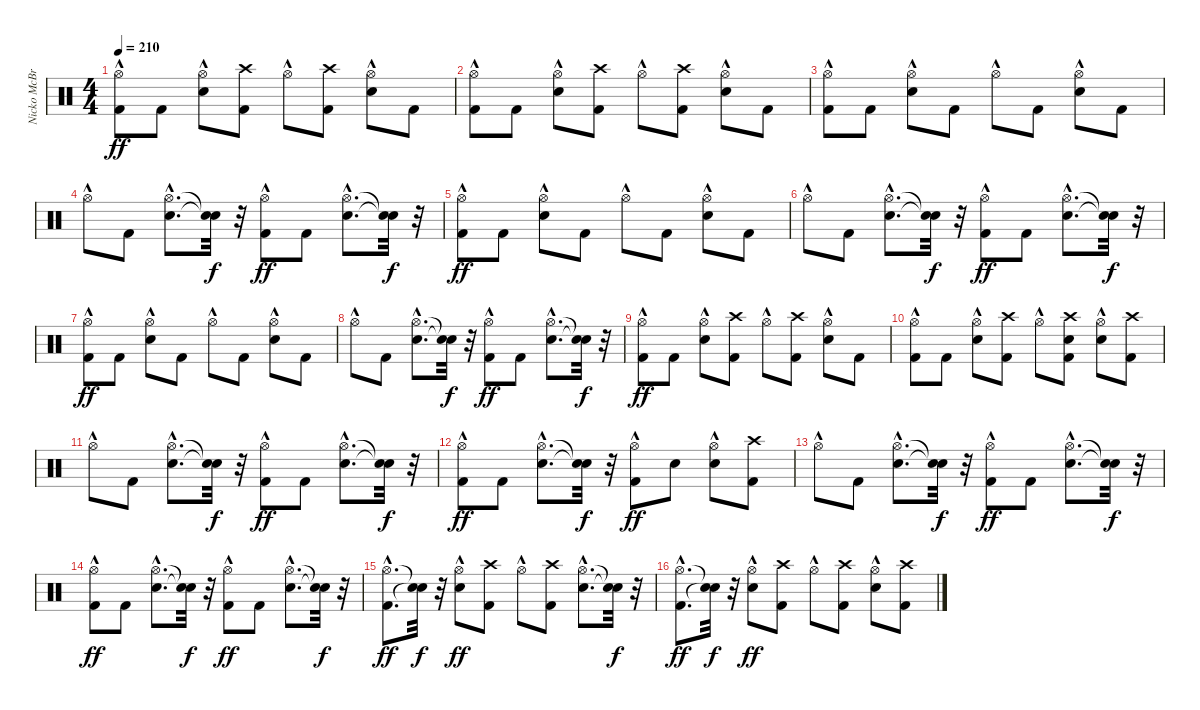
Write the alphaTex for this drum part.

\track ("Nicko McBrain" "Nicko McBr") {instrument percussion}
\staff {score}
\articulation defaults
\ts (4 4)
\tempo 210
\clef neutral
\ks c
("Kick (hit) 2" "Hi-Hat (open)"{hac}).8{dy ff} "Kick (hit) 2".8 ("Snare (hit) 2" "Hi-Hat (open)"{hac}).8 ("Kick (hit) 2" "Crash high (hit)").8 "Hi-Hat (open)"{hac}.8 ("Kick (hit) 2" "Crash high (hit)").8 ("Snare (hit) 2" "Hi-Hat (open)"{hac}).8 "Kick (hit) 2".8 |
("Kick (hit) 2" "Hi-Hat (open)"{hac}).8 "Kick (hit) 2".8 ("Snare (hit) 2" "Hi-Hat (open)"{hac}).8 ("Kick (hit) 2" "Crash high (hit)").8 "Hi-Hat (open)"{hac}.8 ("Kick (hit) 2" "Crash high (hit)").8 ("Snare (hit) 2" "Hi-Hat (open)"{hac}).8 "Kick (hit) 2".8 |
("Kick (hit) 2" "Hi-Hat (open)"{hac}).8 "Kick (hit) 2".8 ("Snare (hit) 2" "Hi-Hat (open)"{hac}).8 "Kick (hit) 2".8 "Hi-Hat (open)"{hac}.8 "Kick (hit) 2".8 ("Snare (hit) 2" "Hi-Hat (open)"{hac}).8 "Kick (hit) 2".8 |
"Hi-Hat (open)"{hac}.8 "Kick (hit) 2".8 ("Snare (hit) 2"{hac} "Hi-Hat (open)"{hac}).8{d} ("Snare (hit)"{t} "Snare (hit)"{t}).32{dy f} r.32 ("Kick (hit) 2" "Hi-Hat (open)"{hac}).8{dy ff} "Kick (hit) 2".8 ("Snare (hit) 2"{hac} "Hi-Hat (open)"{hac}).8{d} ("Snare (hit)"{t} "Snare (hit)"{t}).32{dy f} r.32 |
("Kick (hit) 2" "Hi-Hat (open)"{hac}).8{dy ff} "Kick (hit) 2".8 ("Snare (hit) 2" "Hi-Hat (open)"{hac}).8 "Kick (hit) 2".8 "Hi-Hat (open)"{hac}.8 "Kick (hit) 2".8 ("Snare (hit) 2" "Hi-Hat (open)"{hac}).8 "Kick (hit) 2".8 |
"Hi-Hat (open)"{hac}.8 "Kick (hit) 2".8 ("Snare (hit) 2"{hac} "Hi-Hat (open)"{hac}).8{d} ("Snare (hit)"{t} "Snare (hit)"{t}).32{dy f} r.32 ("Kick (hit) 2" "Hi-Hat (open)"{hac}).8{dy ff} "Kick (hit) 2".8 ("Snare (hit) 2"{hac} "Hi-Hat (open)"{hac}).8{d} ("Snare (hit)"{t} "Snare (hit)"{t}).32{dy f} r.32 |
("Kick (hit) 2" "Hi-Hat (open)"{hac}).8{dy ff} "Kick (hit) 2".8 ("Snare (hit) 2" "Hi-Hat (open)"{hac}).8 "Kick (hit) 2".8 "Hi-Hat (open)"{hac}.8 "Kick (hit) 2".8 ("Snare (hit) 2" "Hi-Hat (open)"{hac}).8 "Kick (hit) 2".8 |
"Hi-Hat (open)"{hac}.8 "Kick (hit) 2".8 ("Snare (hit) 2"{hac} "Hi-Hat (open)"{hac}).8{d} ("Snare (hit)"{t} "Snare (hit)"{t}).32{dy f} r.32 ("Kick (hit) 2" "Hi-Hat (open)"{hac}).8{dy ff} "Kick (hit) 2".8 ("Snare (hit) 2"{hac} "Hi-Hat (open)"{hac}).8{d} ("Snare (hit)"{t} "Snare (hit)"{t}).32{dy f} r.32 |
("Kick (hit) 2" "Hi-Hat (open)"{hac}).8{dy ff} "Kick (hit) 2".8 ("Snare (hit) 2" "Hi-Hat (open)"{hac}).8 ("Kick (hit) 2" "Crash high (hit)").8 "Hi-Hat (open)"{hac}.8 ("Kick (hit) 2" "Crash high (hit)").8 ("Snare (hit) 2" "Hi-Hat (open)"{hac}).8 "Kick (hit) 2".8 |
("Kick (hit) 2" "Hi-Hat (open)"{hac}).8 "Kick (hit) 2".8 ("Snare (hit) 2" "Hi-Hat (open)"{hac}).8 ("Kick (hit) 2" "Crash high (hit)").8 "Hi-Hat (open)"{hac}.8 ("Kick (hit) 2" "Snare (hit) 2" "Crash high (hit)").8 ("Snare (hit) 2" "Hi-Hat (open)"{hac}).8 ("Kick (hit) 2" "Crash high (hit)").8 |
"Hi-Hat (open)"{hac}.8 "Kick (hit) 2".8 ("Snare (hit) 2"{hac} "Hi-Hat (open)"{hac}).8{d} ("Snare (hit)"{t} "Snare (hit)"{t}).32{dy f} r.32 ("Kick (hit) 2" "Hi-Hat (open)"{hac}).8{dy ff} "Kick (hit) 2".8 ("Snare (hit) 2"{hac} "Hi-Hat (open)"{hac}).8{d} ("Snare (hit)"{t} "Snare (hit)"{t}).32{dy f} r.32 |
("Kick (hit) 2" "Hi-Hat (open)"{hac}).8{dy ff} "Kick (hit) 2".8 ("Snare (hit) 2"{hac} "Hi-Hat (open)"{hac}).8{d} ("Snare (hit)"{t} "Snare (hit)"{t}).32{dy f} r.32 ("Kick (hit) 2" "Hi-Hat (open)"{hac}).8{dy ff} "Snare (hit) 2".8 ("Snare (hit) 2" "Hi-Hat (open)"{hac}).8 ("Kick (hit) 2" "Crash high (hit)").8 |
"Hi-Hat (open)"{hac}.8 "Kick (hit) 2".8 ("Snare (hit) 2"{hac} "Hi-Hat (open)"{hac}).8{d} ("Snare (hit)"{t} "Snare (hit)"{t}).32{dy f} r.32 ("Kick (hit) 2" "Hi-Hat (open)"{hac}).8{dy ff} "Kick (hit) 2".8 ("Snare (hit) 2"{hac} "Hi-Hat (open)"{hac}).8{d} ("Snare (hit)"{t} "Snare (hit)"{t}).32{dy f} r.32 |
("Kick (hit) 2" "Hi-Hat (open)"{hac}).8{dy ff} "Kick (hit) 2".8 ("Snare (hit) 2"{hac} "Hi-Hat (open)"{hac}).8{d} ("Snare (hit)"{t} "Snare (hit)"{t}).32{dy f} r.32 ("Kick (hit) 2" "Hi-Hat (open)"{hac}).8{dy ff} "Kick (hit) 2".8 ("Snare (hit) 2"{hac} "Hi-Hat (open)"{hac}).8{d} ("Snare (hit)"{t} "Snare (hit)"{t}).32{dy f} r.32 |
("Kick (hit) 2"{hac} "Hi-Hat (open)"{hac}).8{d dy ff} ("Snare (hit)"{t} "Snare (hit)"{t}).32{dy f} r.32 ("Snare (hit) 2" "Hi-Hat (open)"{hac}).8{dy ff} ("Kick (hit) 2" "Crash high (hit)").8 "Hi-Hat (open)"{hac}.8 ("Kick (hit) 2" "Crash high (hit)").8 ("Snare (hit) 2"{hac} "Hi-Hat (open)"{hac}).8{d} ("Snare (hit)"{t} "Snare (hit)"{t}).32{dy f} r.32 |
("Kick (hit) 2"{hac} "Hi-Hat (open)"{hac}).8{d dy ff} ("Snare (hit)"{t} "Snare (hit)"{t}).32{dy f} r.32 ("Snare (hit) 2" "Hi-Hat (open)"{hac}).8{dy ff} ("Kick (hit) 2" "Crash high (hit)").8 "Hi-Hat (open)"{hac}.8 ("Kick (hit) 2" "Crash high (hit)").8 ("Snare (hit) 2" "Hi-Hat (open)"{hac}).8 ("Kick (hit) 2" "Crash high (hit)").8
